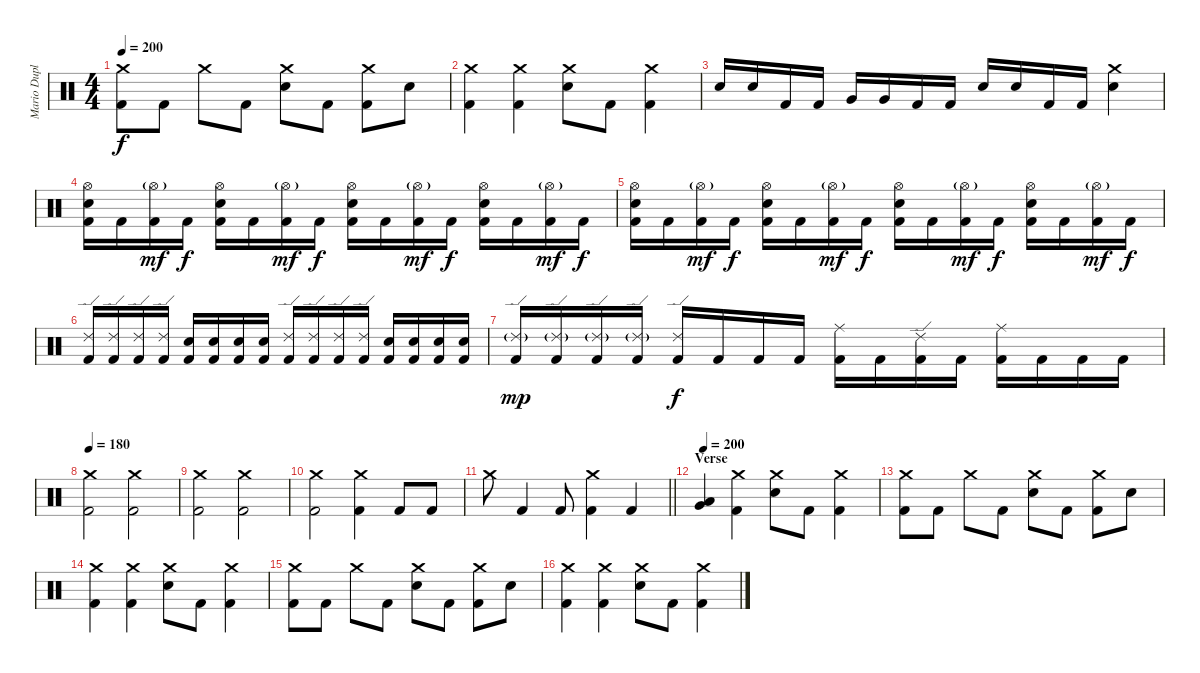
\track ("Mario Duplantier" "Mario Dupl") {instrument percussion}
\staff {score}
\articulation defaults
\ts (4 4)
\tempo 200
\clef neutral
\ks c
("Crash medium (hit)" "Kick (hit) 2").8{dy f} "Kick (hit) 2".8 "Crash medium (hit)".8 "Kick (hit) 2".8 ("Crash medium (hit)" "Electric Snare (hit)").8 "Kick (hit) 2".8 ("Crash medium (hit)" "Kick (hit) 2").8 "Electric Snare (hit)".8 |
("Crash medium (hit)" "Kick (hit) 2").4 ("Crash medium (hit)" "Kick (hit) 2").4 ("Crash medium (hit)" "Electric Snare (hit)").8 "Kick (hit) 2".8 ("Crash medium (hit)" "Kick (hit) 2").4 |
"Electric Snare (hit)".16 "Electric Snare (hit)".16 "Kick (hit) 2".16 "Kick (hit) 2".16 "Very Low Tom (hit)".16 "Very Low Tom (hit)".16 "Kick (hit) 2".16 "Kick (hit) 2".16 "Electric Snare (hit)".16 "Electric Snare (hit)".16 "Kick (hit) 2".16 "Kick (hit) 2".16 ("Crash medium (hit)" "Electric Snare (hit)").4 |
("Hi-Hat (open)" "Electric Snare (hit)" "Kick (hit) 2").16 "Kick (hit) 2".16 ("Hi-Hat (open)"{g} "Kick (hit) 2").16{dy mf} "Kick (hit) 2".16{dy f} ("Hi-Hat (open)" "Electric Snare (hit)" "Kick (hit) 2").16 "Kick (hit) 2".16 ("Hi-Hat (open)"{g} "Kick (hit) 2").16{dy mf} "Kick (hit) 2".16{dy f} ("Hi-Hat (open)" "Electric Snare (hit)" "Kick (hit) 2").16 "Kick (hit) 2".16 ("Hi-Hat (open)"{g} "Kick (hit) 2").16{dy mf} "Kick (hit) 2".16{dy f} ("Hi-Hat (open)" "Electric Snare (hit)" "Kick (hit) 2").16 "Kick (hit) 2".16 ("Hi-Hat (open)"{g} "Kick (hit) 2").16{dy mf} "Kick (hit) 2".16{dy f} |
("Hi-Hat (open)" "Electric Snare (hit)" "Kick (hit) 2").16 "Kick (hit) 2".16 ("Hi-Hat (open)"{g} "Kick (hit) 2").16{dy mf} "Kick (hit) 2".16{dy f} ("Hi-Hat (open)" "Electric Snare (hit)" "Kick (hit) 2").16 "Kick (hit) 2".16 ("Hi-Hat (open)"{g} "Kick (hit) 2").16{dy mf} "Kick (hit) 2".16{dy f} ("Hi-Hat (open)" "Electric Snare (hit)" "Kick (hit) 2").16 "Kick (hit) 2".16 ("Hi-Hat (open)"{g} "Kick (hit) 2").16{dy mf} "Kick (hit) 2".16{dy f} ("Hi-Hat (open)" "Electric Snare (hit)" "Kick (hit) 2").16 "Kick (hit) 2".16 ("Hi-Hat (open)"{g} "Kick (hit) 2").16{dy mf} "Kick (hit) 2".16{dy f} |
("Ride (edge) 2" "Kick (hit) 2").16 ("Ride (edge) 2" "Kick (hit) 2").16 ("Ride (edge) 2" "Kick (hit) 2").16 ("Ride (edge) 2" "Kick (hit) 2").16 ("Electric Snare (hit)" "Kick (hit) 2").16 ("Electric Snare (hit)" "Kick (hit) 2").16 ("Electric Snare (hit)" "Kick (hit) 2").16 ("Electric Snare (hit)" "Kick (hit) 2").16 ("Ride (edge) 2" "Kick (hit) 2").16 ("Ride (edge) 2" "Kick (hit) 2").16 ("Ride (edge) 2" "Kick (hit) 2").16 ("Ride (edge) 2" "Kick (hit) 2").16 ("Electric Snare (hit)" "Kick (hit) 2").16 ("Electric Snare (hit)" "Kick (hit) 2").16 ("Electric Snare (hit)" "Kick (hit) 2").16 ("Electric Snare (hit)" "Kick (hit) 2").16 |
("Ride (edge) 2"{g} "Kick (hit) 2").16{dy mp} ("Ride (edge) 2"{g} "Kick (hit) 2").16 ("Ride (edge) 2"{g} "Kick (hit) 2").16 ("Ride (edge) 2"{g} "Kick (hit) 2").16 ("Ride (edge) 2" "Kick (hit) 2").16{dy f} "Kick (hit) 2".16 "Kick (hit) 2".16 "Kick (hit) 2".16 ("Ride (middle)" "Kick (hit) 2").16 "Kick (hit) 2".16 ("Ride (edge) 2" "Kick (hit) 2").16 "Kick (hit) 2".16 ("Ride (middle)" "Kick (hit) 2").16 "Kick (hit) 2".16 "Kick (hit) 2".16 "Kick (hit) 2".16 |
\tempo 180
("Crash medium (hit)" "Kick (hit) 2").2 ("Crash medium (hit)" "Kick (hit) 2").2 |
("Crash medium (hit)" "Kick (hit) 2").2 ("Crash medium (hit)" "Kick (hit) 2").2 |
("Crash medium (hit)" "Kick (hit) 2").2 ("Crash medium (hit)" "Kick (hit) 2").4 "Kick (hit) 2".8 "Kick (hit) 2".8 |
\barLineRight lightlight "Crash medium (hit)".8 "Kick (hit) 2".4 "Kick (hit) 2".8
("Crash medium (hit)" "Kick (hit) 2").4 "Kick (hit) 2".4 |
\section ("" "Verse")
\tempo 200
("Low Floor Tom (hit)" "Very Low Tom (hit)").4 ("Crash medium (hit)" "Kick (hit) 2").4 ("Crash medium (hit)" "Electric Snare (hit)").8 "Kick (hit) 2".8 ("Crash medium (hit)" "Kick (hit) 2").4 |
("Crash medium (hit)" "Kick (hit) 2").8 "Kick (hit) 2".8 "Crash medium (hit)".8 "Kick (hit) 2".8 ("Crash medium (hit)" "Electric Snare (hit)").8 "Kick (hit) 2".8 ("Crash medium (hit)" "Kick (hit) 2").8 "Electric Snare (hit)".8 |
("Crash medium (hit)" "Kick (hit) 2").4 ("Crash medium (hit)" "Kick (hit) 2").4 ("Crash medium (hit)" "Electric Snare (hit)").8 "Kick (hit) 2".8 ("Crash medium (hit)" "Kick (hit) 2").4 |
("Crash medium (hit)" "Kick (hit) 2").8 "Kick (hit) 2".8 "Crash medium (hit)".8 "Kick (hit) 2".8 ("Crash medium (hit)" "Electric Snare (hit)").8 "Kick (hit) 2".8 ("Crash medium (hit)" "Kick (hit) 2").8 "Electric Snare (hit)".8 |
("Crash medium (hit)" "Kick (hit) 2").4 ("Crash medium (hit)" "Kick (hit) 2").4 ("Crash medium (hit)" "Electric Snare (hit)").8 "Kick (hit) 2".8 ("Crash medium (hit)" "Kick (hit) 2").4
